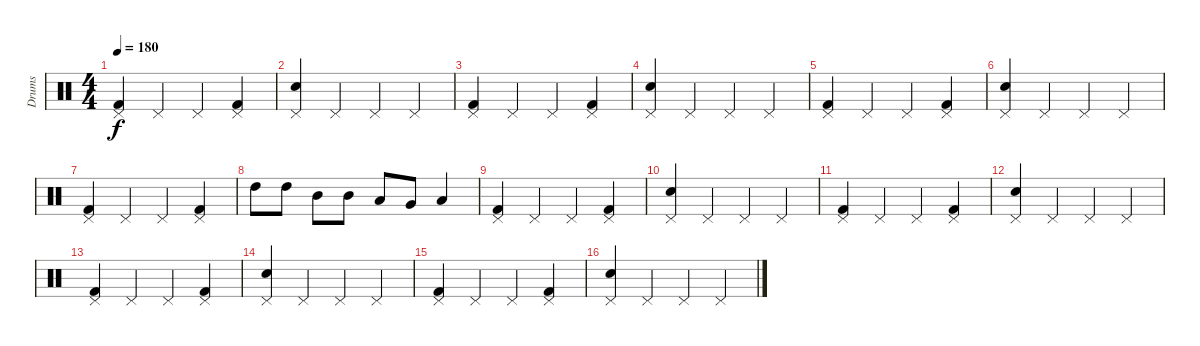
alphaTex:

\track ("Drums" "Drums") {instrument percussion}
\staff {score}
\articulation defaults
\ts (4 4)
\tempo 180
\clef neutral
\ks c
("Kick (hit) 2" "Pedal Hi-Hat (hit)").4{dy f} "Pedal Hi-Hat (hit)".4 "Pedal Hi-Hat (hit)".4 ("Kick (hit) 2" "Pedal Hi-Hat (hit)").4 |
("Electric Snare (hit)" "Pedal Hi-Hat (hit)").4 "Pedal Hi-Hat (hit)".4 "Pedal Hi-Hat (hit)".4 "Pedal Hi-Hat (hit)".4 |
("Kick (hit) 2" "Pedal Hi-Hat (hit)").4 "Pedal Hi-Hat (hit)".4 "Pedal Hi-Hat (hit)".4 ("Kick (hit) 2" "Pedal Hi-Hat (hit)").4 |
("Electric Snare (hit)" "Pedal Hi-Hat (hit)").4 "Pedal Hi-Hat (hit)".4 "Pedal Hi-Hat (hit)".4 "Pedal Hi-Hat (hit)".4 |
("Kick (hit) 2" "Pedal Hi-Hat (hit)").4 "Pedal Hi-Hat (hit)".4 "Pedal Hi-Hat (hit)".4 ("Kick (hit) 2" "Pedal Hi-Hat (hit)").4 |
("Electric Snare (hit)" "Pedal Hi-Hat (hit)").4 "Pedal Hi-Hat (hit)".4 "Pedal Hi-Hat (hit)".4 "Pedal Hi-Hat (hit)".4 |
("Kick (hit) 2" "Pedal Hi-Hat (hit)").4 "Pedal Hi-Hat (hit)".4 "Pedal Hi-Hat (hit)".4 ("Kick (hit) 2" "Pedal Hi-Hat (hit)").4 |
"High Tom (hit)".8 "High Tom (hit)".8 "Mid Tom (hit)".8 "Mid Tom (hit)".8 "Low Tom (hit)".8 "Very Low Tom (hit)".8 "Low Floor Tom (hit)".4 |
("Kick (hit) 2" "Pedal Hi-Hat (hit)").4 "Pedal Hi-Hat (hit)".4 "Pedal Hi-Hat (hit)".4 ("Kick (hit) 2" "Pedal Hi-Hat (hit)").4 |
("Electric Snare (hit)" "Pedal Hi-Hat (hit)").4 "Pedal Hi-Hat (hit)".4 "Pedal Hi-Hat (hit)".4 "Pedal Hi-Hat (hit)".4 |
("Kick (hit) 2" "Pedal Hi-Hat (hit)").4 "Pedal Hi-Hat (hit)".4 "Pedal Hi-Hat (hit)".4 ("Kick (hit) 2" "Pedal Hi-Hat (hit)").4 |
("Electric Snare (hit)" "Pedal Hi-Hat (hit)").4 "Pedal Hi-Hat (hit)".4 "Pedal Hi-Hat (hit)".4 "Pedal Hi-Hat (hit)".4 |
("Kick (hit) 2" "Pedal Hi-Hat (hit)").4 "Pedal Hi-Hat (hit)".4 "Pedal Hi-Hat (hit)".4 ("Kick (hit) 2" "Pedal Hi-Hat (hit)").4 |
("Electric Snare (hit)" "Pedal Hi-Hat (hit)").4 "Pedal Hi-Hat (hit)".4 "Pedal Hi-Hat (hit)".4 "Pedal Hi-Hat (hit)".4 |
("Kick (hit) 2" "Pedal Hi-Hat (hit)").4 "Pedal Hi-Hat (hit)".4 "Pedal Hi-Hat (hit)".4 ("Kick (hit) 2" "Pedal Hi-Hat (hit)").4 |
("Electric Snare (hit)" "Pedal Hi-Hat (hit)").4 "Pedal Hi-Hat (hit)".4 "Pedal Hi-Hat (hit)".4 "Pedal Hi-Hat (hit)".4
